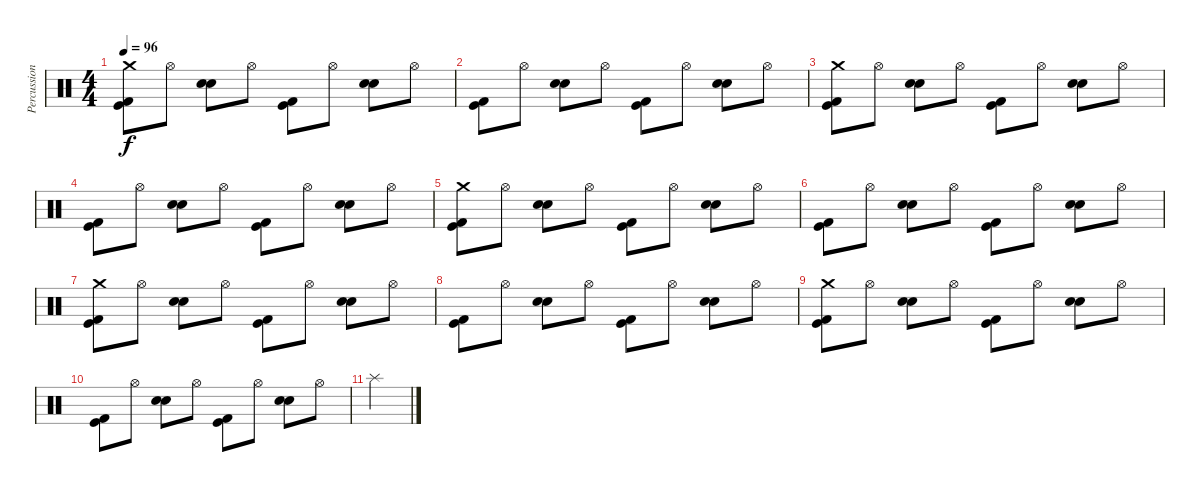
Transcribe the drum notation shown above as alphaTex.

\track ("Percussion" "Percussion") {instrument percussion}
\staff {score}
\articulation defaults
\ts (4 4)
\tempo 96
\clef neutral
\ks c
("Crash medium (hit)" "Kick (hit) 2" "Kick (hit)").8{dy f} "Hi-Hat (open)".8 ("Snare (hit) 2" "Electric Snare (hit)").8 "Hi-Hat (open)".8 ("Kick (hit)" "Kick (hit) 2").8 "Hi-Hat (open)".8 ("Electric Snare (hit)" "Snare (hit) 2").8 "Hi-Hat (open)".8 |
("Kick (hit) 2" "Kick (hit)").8 "Hi-Hat (open)".8 ("Snare (hit) 2" "Electric Snare (hit)").8 "Hi-Hat (open)".8 ("Kick (hit)" "Kick (hit) 2").8 "Hi-Hat (open)".8 ("Electric Snare (hit)" "Snare (hit) 2").8 "Hi-Hat (open)".8 |
("Crash medium (hit)" "Kick (hit) 2" "Kick (hit)").8 "Hi-Hat (open)".8 ("Snare (hit) 2" "Electric Snare (hit)").8 "Hi-Hat (open)".8 ("Kick (hit)" "Kick (hit) 2").8 "Hi-Hat (open)".8 ("Electric Snare (hit)" "Snare (hit) 2").8 "Hi-Hat (open)".8 |
("Kick (hit) 2" "Kick (hit)").8 "Hi-Hat (open)".8 ("Snare (hit) 2" "Electric Snare (hit)").8 "Hi-Hat (open)".8 ("Kick (hit)" "Kick (hit) 2").8 "Hi-Hat (open)".8 ("Electric Snare (hit)" "Snare (hit) 2").8 "Hi-Hat (open)".8 |
("Crash medium (hit)" "Kick (hit) 2" "Kick (hit)").8 "Hi-Hat (open)".8 ("Snare (hit) 2" "Electric Snare (hit)").8 "Hi-Hat (open)".8 ("Kick (hit)" "Kick (hit) 2").8 "Hi-Hat (open)".8 ("Electric Snare (hit)" "Snare (hit) 2").8 "Hi-Hat (open)".8 |
("Kick (hit) 2" "Kick (hit)").8 "Hi-Hat (open)".8 ("Snare (hit) 2" "Electric Snare (hit)").8 "Hi-Hat (open)".8 ("Kick (hit)" "Kick (hit) 2").8 "Hi-Hat (open)".8 ("Electric Snare (hit)" "Snare (hit) 2").8 "Hi-Hat (open)".8 |
("Crash medium (hit)" "Kick (hit) 2" "Kick (hit)").8 "Hi-Hat (open)".8 ("Snare (hit) 2" "Electric Snare (hit)").8 "Hi-Hat (open)".8 ("Kick (hit)" "Kick (hit) 2").8 "Hi-Hat (open)".8 ("Electric Snare (hit)" "Snare (hit) 2").8 "Hi-Hat (open)".8 |
("Kick (hit) 2" "Kick (hit)").8 "Hi-Hat (open)".8 ("Snare (hit) 2" "Electric Snare (hit)").8 "Hi-Hat (open)".8 ("Kick (hit)" "Kick (hit) 2").8 "Hi-Hat (open)".8 ("Electric Snare (hit)" "Snare (hit) 2").8 "Hi-Hat (open)".8 |
("Crash medium (hit)" "Kick (hit) 2" "Kick (hit)").8 "Hi-Hat (open)".8 ("Snare (hit) 2" "Electric Snare (hit)").8 "Hi-Hat (open)".8 ("Kick (hit)" "Kick (hit) 2").8 "Hi-Hat (open)".8 ("Electric Snare (hit)" "Snare (hit) 2").8 "Hi-Hat (open)".8 |
("Kick (hit) 2" "Kick (hit)").8 "Hi-Hat (open)".8 ("Snare (hit) 2" "Electric Snare (hit)").8 "Hi-Hat (open)".8 ("Kick (hit)" "Kick (hit) 2").8 "Hi-Hat (open)".8 ("Electric Snare (hit)" "Snare (hit) 2").8 "Hi-Hat (open)".8 |
"Splash (hit)".4
